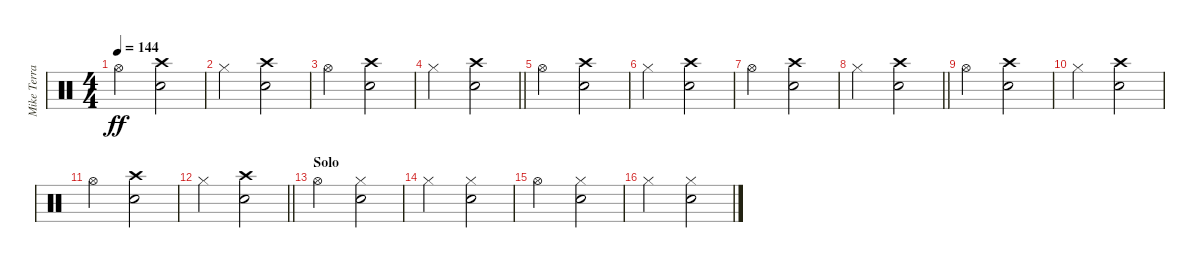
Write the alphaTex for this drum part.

\track ("Mike Terrana" "Mike Terra") {instrument percussion}
\staff {score}
\articulation defaults
\ts (4 4)
\tempo 144
\clef neutral
\ks c "Hi-Hat (open)".2{dy ff}
("Snare (hit) 2" "Crash high (hit)").2 |
"Hi-Hat (closed)".2 ("Snare (hit) 2" "Crash high (hit)").2 |
"Hi-Hat (open)".2 ("Snare (hit) 2" "Crash high (hit)").2 |
\barLineRight lightlight "Hi-Hat (closed)".2
("Snare (hit) 2" "Crash high (hit)").2 |
"Hi-Hat (open)".2 ("Snare (hit) 2" "Crash high (hit)").2 |
"Hi-Hat (closed)".2 ("Snare (hit) 2" "Crash high (hit)").2 |
"Hi-Hat (open)".2 ("Snare (hit) 2" "Crash high (hit)").2 |
\barLineRight lightlight "Hi-Hat (closed)".2
("Snare (hit) 2" "Crash high (hit)").2 |
"Hi-Hat (open)".2 ("Snare (hit) 2" "Crash high (hit)").2 |
"Hi-Hat (closed)".2 ("Snare (hit) 2" "Crash high (hit)").2 |
"Hi-Hat (open)".2 ("Snare (hit) 2" "Crash high (hit)").2 |
\barLineRight lightlight "Hi-Hat (closed)".2
("Snare (hit) 2" "Crash high (hit)").2 |
\section ("" "Solo")
"Hi-Hat (open)".2 ("Snare (hit) 2" "Hi-Hat (closed)").2 |
"Hi-Hat (closed)".2 ("Snare (hit) 2" "Hi-Hat (closed)").2 |
"Hi-Hat (open)".2 ("Snare (hit) 2" "Hi-Hat (closed)").2 |
"Hi-Hat (closed)".2 ("Snare (hit) 2" "Hi-Hat (closed)").2
